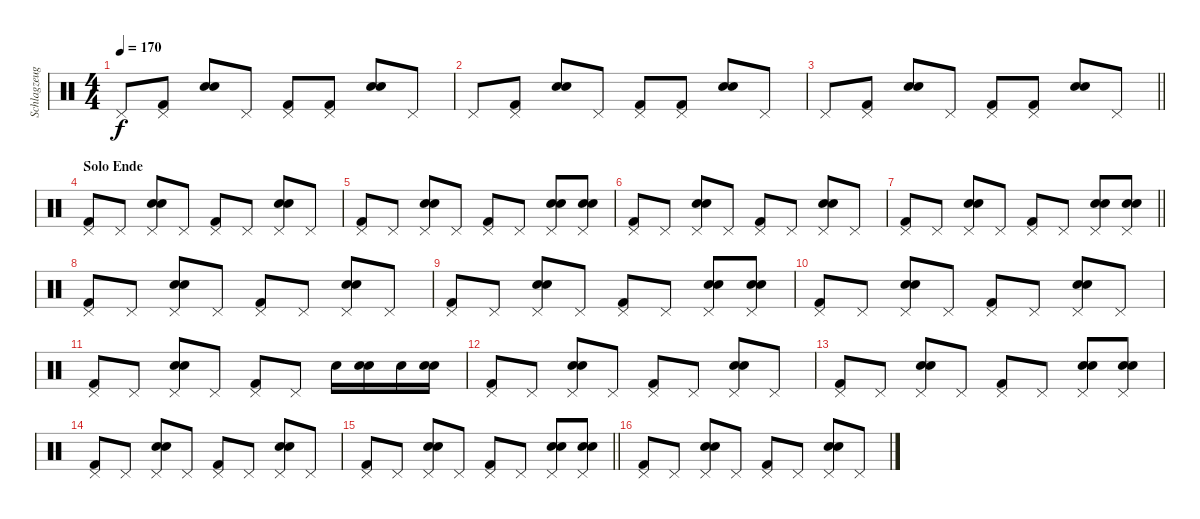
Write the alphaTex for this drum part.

\track ("Schlagzeug" "Schlagzeug") {instrument percussion}
\staff {score}
\articulation defaults
\ts (4 4)
\tempo 170
\clef neutral
\ks c "Pedal Hi-Hat (hit)".8{dy f}
("Pedal Hi-Hat (hit)" "Kick (hit) 2").8 ("Snare (hit) 2" "Snare (hit) 2").8 "Pedal Hi-Hat (hit)".8 ("Pedal Hi-Hat (hit)" "Kick (hit) 2").8 ("Pedal Hi-Hat (hit)" "Kick (hit) 2").8 ("Snare (hit) 2" "Snare (hit) 2").8 "Pedal Hi-Hat (hit)".8 |
"Pedal Hi-Hat (hit)".8 ("Pedal Hi-Hat (hit)" "Kick (hit) 2").8 ("Snare (hit) 2" "Snare (hit) 2").8 "Pedal Hi-Hat (hit)".8 ("Pedal Hi-Hat (hit)" "Kick (hit) 2").8 ("Pedal Hi-Hat (hit)" "Kick (hit) 2").8 ("Snare (hit) 2" "Snare (hit) 2").8 "Pedal Hi-Hat (hit)".8 |
\barLineRight lightlight "Pedal Hi-Hat (hit)".8
("Pedal Hi-Hat (hit)" "Kick (hit) 2").8 ("Snare (hit) 2" "Snare (hit) 2").8 "Pedal Hi-Hat (hit)".8 ("Pedal Hi-Hat (hit)" "Kick (hit) 2").8 ("Pedal Hi-Hat (hit)" "Kick (hit) 2").8 ("Snare (hit) 2" "Snare (hit) 2").8 "Pedal Hi-Hat (hit)".8 |
\section ("" "Solo Ende")
("Pedal Hi-Hat (hit)" "Kick (hit) 2").8 "Pedal Hi-Hat (hit)".8 ("Pedal Hi-Hat (hit)" "Snare (hit) 2" "Snare (hit) 2").8 "Pedal Hi-Hat (hit)".8 ("Pedal Hi-Hat (hit)" "Kick (hit) 2").8 "Pedal Hi-Hat (hit)".8 ("Pedal Hi-Hat (hit)" "Snare (hit) 2" "Snare (hit) 2").8 "Pedal Hi-Hat (hit)".8 |
("Pedal Hi-Hat (hit)" "Kick (hit) 2").8 "Pedal Hi-Hat (hit)".8 ("Pedal Hi-Hat (hit)" "Snare (hit) 2" "Snare (hit) 2").8 "Pedal Hi-Hat (hit)".8 ("Pedal Hi-Hat (hit)" "Kick (hit) 2").8 "Pedal Hi-Hat (hit)".8 ("Pedal Hi-Hat (hit)" "Snare (hit) 2" "Snare (hit) 2").8 ("Pedal Hi-Hat (hit)" "Snare (hit) 2" "Snare (hit) 2").8 |
("Pedal Hi-Hat (hit)" "Kick (hit) 2").8 "Pedal Hi-Hat (hit)".8 ("Pedal Hi-Hat (hit)" "Snare (hit) 2" "Snare (hit) 2").8 "Pedal Hi-Hat (hit)".8 ("Pedal Hi-Hat (hit)" "Kick (hit) 2").8 "Pedal Hi-Hat (hit)".8 ("Pedal Hi-Hat (hit)" "Snare (hit) 2" "Snare (hit) 2").8 "Pedal Hi-Hat (hit)".8 |
\barLineRight lightlight
("Pedal Hi-Hat (hit)" "Kick (hit) 2").8 "Pedal Hi-Hat (hit)".8 ("Pedal Hi-Hat (hit)" "Snare (hit) 2" "Snare (hit) 2").8 "Pedal Hi-Hat (hit)".8 ("Pedal Hi-Hat (hit)" "Kick (hit) 2").8 "Pedal Hi-Hat (hit)".8 ("Pedal Hi-Hat (hit)" "Snare (hit) 2" "Snare (hit) 2").8 ("Pedal Hi-Hat (hit)" "Snare (hit) 2" "Snare (hit) 2").8 |
("Pedal Hi-Hat (hit)" "Kick (hit) 2").8 "Pedal Hi-Hat (hit)".8 ("Pedal Hi-Hat (hit)" "Snare (hit) 2" "Snare (hit) 2").8 "Pedal Hi-Hat (hit)".8 ("Pedal Hi-Hat (hit)" "Kick (hit) 2").8 "Pedal Hi-Hat (hit)".8 ("Pedal Hi-Hat (hit)" "Snare (hit) 2" "Snare (hit) 2").8 "Pedal Hi-Hat (hit)".8 |
("Pedal Hi-Hat (hit)" "Kick (hit) 2").8 "Pedal Hi-Hat (hit)".8 ("Pedal Hi-Hat (hit)" "Snare (hit) 2" "Snare (hit) 2").8 "Pedal Hi-Hat (hit)".8 ("Pedal Hi-Hat (hit)" "Kick (hit) 2").8 "Pedal Hi-Hat (hit)".8 ("Pedal Hi-Hat (hit)" "Snare (hit) 2" "Snare (hit) 2").8 ("Pedal Hi-Hat (hit)" "Snare (hit) 2" "Snare (hit) 2").8 |
("Pedal Hi-Hat (hit)" "Kick (hit) 2").8 "Pedal Hi-Hat (hit)".8 ("Pedal Hi-Hat (hit)" "Snare (hit) 2" "Snare (hit) 2").8 "Pedal Hi-Hat (hit)".8 ("Pedal Hi-Hat (hit)" "Kick (hit) 2").8 "Pedal Hi-Hat (hit)".8 ("Pedal Hi-Hat (hit)" "Snare (hit) 2" "Snare (hit) 2").8 "Pedal Hi-Hat (hit)".8 |
("Pedal Hi-Hat (hit)" "Kick (hit) 2").8 "Pedal Hi-Hat (hit)".8 ("Pedal Hi-Hat (hit)" "Snare (hit) 2" "Snare (hit) 2").8 "Pedal Hi-Hat (hit)".8 ("Pedal Hi-Hat (hit)" "Kick (hit) 2").8 "Pedal Hi-Hat (hit)".8 "Snare (hit) 2".16 ("Snare (hit) 2" "Snare (hit) 2").16 "Snare (hit) 2".16 ("Snare (hit) 2" "Snare (hit) 2").16 |
("Pedal Hi-Hat (hit)" "Kick (hit) 2").8 "Pedal Hi-Hat (hit)".8 ("Pedal Hi-Hat (hit)" "Snare (hit) 2" "Snare (hit) 2").8 "Pedal Hi-Hat (hit)".8 ("Pedal Hi-Hat (hit)" "Kick (hit) 2").8 "Pedal Hi-Hat (hit)".8 ("Pedal Hi-Hat (hit)" "Snare (hit) 2" "Snare (hit) 2").8 "Pedal Hi-Hat (hit)".8 |
("Pedal Hi-Hat (hit)" "Kick (hit) 2").8 "Pedal Hi-Hat (hit)".8 ("Pedal Hi-Hat (hit)" "Snare (hit) 2" "Snare (hit) 2").8 "Pedal Hi-Hat (hit)".8 ("Pedal Hi-Hat (hit)" "Kick (hit) 2").8 "Pedal Hi-Hat (hit)".8 ("Pedal Hi-Hat (hit)" "Snare (hit) 2" "Snare (hit) 2").8 ("Pedal Hi-Hat (hit)" "Snare (hit) 2" "Snare (hit) 2").8 |
("Pedal Hi-Hat (hit)" "Kick (hit) 2").8 "Pedal Hi-Hat (hit)".8 ("Pedal Hi-Hat (hit)" "Snare (hit) 2" "Snare (hit) 2").8 "Pedal Hi-Hat (hit)".8 ("Pedal Hi-Hat (hit)" "Kick (hit) 2").8 "Pedal Hi-Hat (hit)".8 ("Pedal Hi-Hat (hit)" "Snare (hit) 2" "Snare (hit) 2").8 "Pedal Hi-Hat (hit)".8 |
\barLineRight lightlight
("Pedal Hi-Hat (hit)" "Kick (hit) 2").8 "Pedal Hi-Hat (hit)".8 ("Pedal Hi-Hat (hit)" "Snare (hit) 2" "Snare (hit) 2").8 "Pedal Hi-Hat (hit)".8 ("Pedal Hi-Hat (hit)" "Kick (hit) 2").8 "Pedal Hi-Hat (hit)".8 ("Pedal Hi-Hat (hit)" "Snare (hit) 2" "Snare (hit) 2").8 ("Pedal Hi-Hat (hit)" "Snare (hit) 2" "Snare (hit) 2").8 |
("Pedal Hi-Hat (hit)" "Kick (hit) 2").8 "Pedal Hi-Hat (hit)".8 ("Pedal Hi-Hat (hit)" "Snare (hit) 2" "Snare (hit) 2").8 "Pedal Hi-Hat (hit)".8 ("Pedal Hi-Hat (hit)" "Kick (hit) 2").8 "Pedal Hi-Hat (hit)".8 ("Pedal Hi-Hat (hit)" "Snare (hit) 2" "Snare (hit) 2").8 "Pedal Hi-Hat (hit)".8
